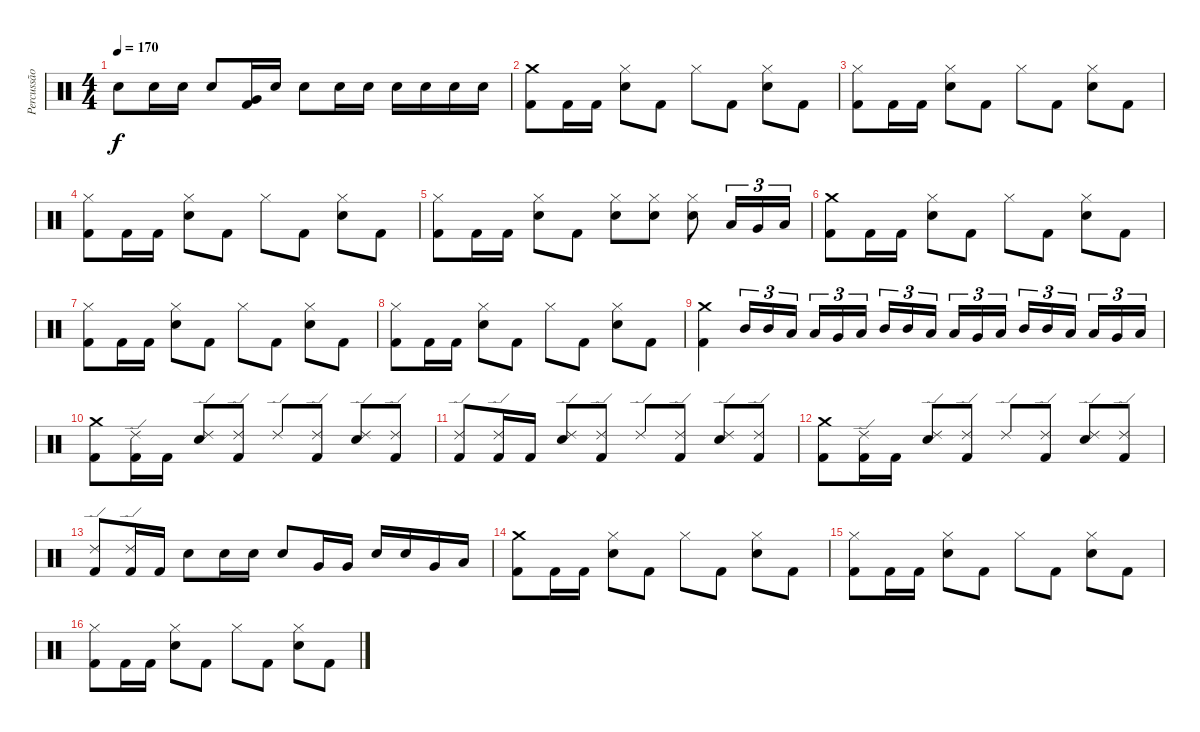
\track ("Percussão" "Percussão") {instrument percussion}
\staff {score}
\articulation defaults
\ts (4 4)
\tempo 170
\clef neutral
\ks c "Electric Snare (hit)".8{dy f} "Electric Snare (hit)".16 "Electric Snare (hit)".16 "Electric Snare (hit)".8
("Very Low Tom (hit)" "Kick (hit) 2").16 "Electric Snare (hit)".16 "Electric Snare (hit)".8 "Electric Snare (hit)".16 "Electric Snare (hit)".16 "Electric Snare (hit)".16 "Electric Snare (hit)".16 "Electric Snare (hit)".16 "Electric Snare (hit)".16 |
("Crash medium (hit)" "Kick (hit) 2").8 "Kick (hit) 2".16 "Kick (hit) 2".16 ("Hi-Hat (closed)" "Electric Snare (hit)").8 "Kick (hit) 2".8 "Hi-Hat (closed)".8 "Kick (hit) 2".8 ("Hi-Hat (closed)" "Electric Snare (hit)").8 "Kick (hit) 2".8 |
("Hi-Hat (closed)" "Kick (hit) 2").8 "Kick (hit) 2".16 "Kick (hit) 2".16 ("Hi-Hat (closed)" "Electric Snare (hit)").8 "Kick (hit) 2".8 "Hi-Hat (closed)".8 "Kick (hit) 2".8 ("Hi-Hat (closed)" "Electric Snare (hit)").8 "Kick (hit) 2".8 |
("Hi-Hat (closed)" "Kick (hit) 2").8 "Kick (hit) 2".16 "Kick (hit) 2".16 ("Hi-Hat (closed)" "Electric Snare (hit)").8 "Kick (hit) 2".8 "Hi-Hat (closed)".8 "Kick (hit) 2".8 ("Hi-Hat (closed)" "Electric Snare (hit)").8 "Kick (hit) 2".8 |
("Hi-Hat (closed)" "Kick (hit) 2").8 "Kick (hit) 2".16 "Kick (hit) 2".16 ("Hi-Hat (closed)" "Electric Snare (hit)").8 "Kick (hit) 2".8 ("Hi-Hat (closed)" "Electric Snare (hit)").8 ("Hi-Hat (closed)" "Electric Snare (hit)").8 ("Hi-Hat (closed)" "Electric Snare (hit)").8 "Low Tom (hit)".16{tu (3 2)} "Very Low Tom (hit)".16{tu (3 2)} "Low Floor Tom (hit)".16{tu (3 2)} |
("Crash medium (hit)" "Kick (hit) 2").8 "Kick (hit) 2".16 "Kick (hit) 2".16 ("Hi-Hat (closed)" "Electric Snare (hit)").8 "Kick (hit) 2".8 "Hi-Hat (closed)".8 "Kick (hit) 2".8 ("Hi-Hat (closed)" "Electric Snare (hit)").8 "Kick (hit) 2".8 |
("Hi-Hat (closed)" "Kick (hit) 2").8 "Kick (hit) 2".16 "Kick (hit) 2".16 ("Hi-Hat (closed)" "Electric Snare (hit)").8 "Kick (hit) 2".8 "Hi-Hat (closed)".8 "Kick (hit) 2".8 ("Hi-Hat (closed)" "Electric Snare (hit)").8 "Kick (hit) 2".8 |
("Hi-Hat (closed)" "Kick (hit) 2").8 "Kick (hit) 2".16 "Kick (hit) 2".16 ("Hi-Hat (closed)" "Electric Snare (hit)").8 "Kick (hit) 2".8 "Hi-Hat (closed)".8 "Kick (hit) 2".8 ("Hi-Hat (closed)" "Electric Snare (hit)").8 "Kick (hit) 2".8 |
("Crash medium (hit)" "Kick (hit) 2").4 "Mid Tom (hit)".16{tu (3 2)} "Mid Tom (hit)".16{tu (3 2)} "Low Tom (hit)".16{tu (3 2)} "Low Tom (hit)".16{tu (3 2)} "Very Low Tom (hit)".16{tu (3 2)} "Low Floor Tom (hit)".16{tu (3 2)} "Mid Tom (hit)".16{tu (3 2)} "Mid Tom (hit)".16{tu (3 2)} "Low Tom (hit)".16{tu (3 2)} "Low Tom (hit)".16{tu (3 2)} "Very Low Tom (hit)".16{tu (3 2)} "Low Floor Tom (hit)".16{tu (3 2)} "Mid Tom (hit)".16{tu (3 2)} "Mid Tom (hit)".16{tu (3 2)} "Low Tom (hit)".16{tu (3 2)} "Low Tom (hit)".16{tu (3 2)} "Very Low Tom (hit)".16{tu (3 2)} "Low Floor Tom (hit)".16{tu (3 2)} |
("Crash medium (hit)" "Kick (hit) 2").8 ("Ride (edge) 2" "Kick (hit) 2").16 "Kick (hit) 2".16 ("Ride (edge) 2" "Electric Snare (hit)").8 ("Ride (edge) 2" "Kick (hit) 2").8 "Ride (edge) 2".8 ("Ride (edge) 2" "Kick (hit) 2").8 ("Ride (edge) 2" "Electric Snare (hit)").8 ("Ride (edge) 2" "Kick (hit) 2").8 |
("Ride (edge) 2" "Kick (hit) 2").8 ("Ride (edge) 2" "Kick (hit) 2").16 "Kick (hit) 2".16 ("Ride (edge) 2" "Electric Snare (hit)").8 ("Ride (edge) 2" "Kick (hit) 2").8 "Ride (edge) 2".8 ("Ride (edge) 2" "Kick (hit) 2").8 ("Ride (edge) 2" "Electric Snare (hit)").8 ("Ride (edge) 2" "Kick (hit) 2").8 |
("Crash medium (hit)" "Kick (hit) 2").8 ("Ride (edge) 2" "Kick (hit) 2").16 "Kick (hit) 2".16 ("Ride (edge) 2" "Electric Snare (hit)").8 ("Ride (edge) 2" "Kick (hit) 2").8 "Ride (edge) 2".8 ("Ride (edge) 2" "Kick (hit) 2").8 ("Ride (edge) 2" "Electric Snare (hit)").8 ("Ride (edge) 2" "Kick (hit) 2").8 |
("Ride (edge) 2" "Kick (hit) 2").8 ("Ride (edge) 2" "Kick (hit) 2").16 "Kick (hit) 2".16 "Electric Snare (hit)".8 "Electric Snare (hit)".16 "Electric Snare (hit)".16 "Electric Snare (hit)".8 "Very Low Tom (hit)".16 "Very Low Tom (hit)".16 "Electric Snare (hit)".16 "Electric Snare (hit)".16 "Very Low Tom (hit)".16 "Low Floor Tom (hit)".16 |
("Crash medium (hit)" "Kick (hit) 2").8 "Kick (hit) 2".16 "Kick (hit) 2".16 ("Hi-Hat (closed)" "Electric Snare (hit)").8 "Kick (hit) 2".8 "Hi-Hat (closed)".8 "Kick (hit) 2".8 ("Hi-Hat (closed)" "Electric Snare (hit)").8 "Kick (hit) 2".8 |
("Hi-Hat (closed)" "Kick (hit) 2").8 "Kick (hit) 2".16 "Kick (hit) 2".16 ("Hi-Hat (closed)" "Electric Snare (hit)").8 "Kick (hit) 2".8 "Hi-Hat (closed)".8 "Kick (hit) 2".8 ("Hi-Hat (closed)" "Electric Snare (hit)").8 "Kick (hit) 2".8 |
("Hi-Hat (closed)" "Kick (hit) 2").8 "Kick (hit) 2".16 "Kick (hit) 2".16 ("Hi-Hat (closed)" "Electric Snare (hit)").8 "Kick (hit) 2".8 "Hi-Hat (closed)".8 "Kick (hit) 2".8 ("Hi-Hat (closed)" "Electric Snare (hit)").8 "Kick (hit) 2".8
